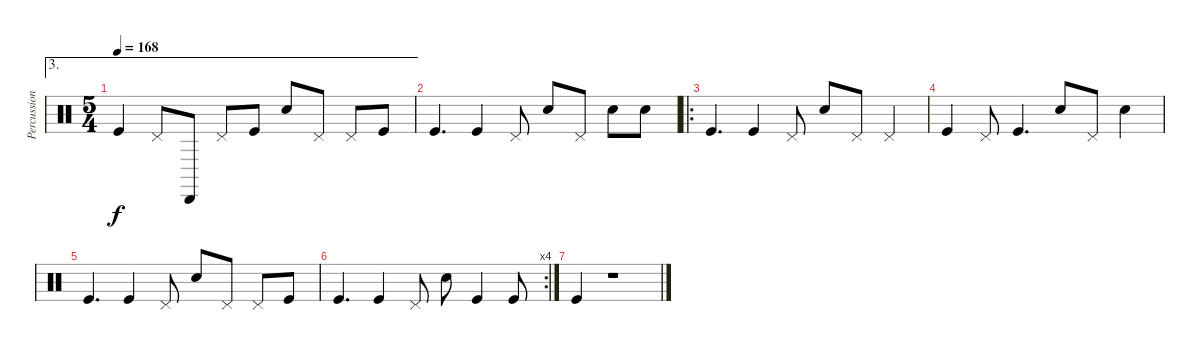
\track ("Percussion" "Percussion") {instrument percussion}
\staff {score}
\articulation defaults
\ae 3
\ts (5 4)
\tempo 168
\clef neutral
\ks c "Kick (hit)".4{dy f} "Pedal Hi-Hat (hit)".8 "Cabasa (hit)".8 "Pedal Hi-Hat (hit)".8 "Kick (hit)".8 "Snare (hit) 2".8 "Pedal Hi-Hat (hit)".8 "Pedal Hi-Hat (hit)".8 "Kick (hit)".8
|
"Kick (hit)".4{d} "Kick (hit)".4 "Pedal Hi-Hat (hit)".8 "Snare (hit) 2".8 "Pedal Hi-Hat (hit)".8 "Snare (hit) 2".8 "Snare (hit) 2".8 |
\ro "Kick (hit)".4{d} "Kick (hit)".4 "Pedal Hi-Hat (hit)".8 "Snare (hit) 2".8 "Pedal Hi-Hat (hit)".8 "Pedal Hi-Hat (hit)".4
|
"Kick (hit)".4 "Pedal Hi-Hat (hit)".8 "Kick (hit)".4{d} "Snare (hit) 2".8 "Pedal Hi-Hat (hit)".8 "Snare (hit) 2".4 |
"Kick (hit)".4{d} "Kick (hit)".4 "Pedal Hi-Hat (hit)".8 "Snare (hit) 2".8 "Pedal Hi-Hat (hit)".8 "Pedal Hi-Hat (hit)".8 "Kick (hit)".8 |
\rc 4 "Kick (hit)".4{d} "Kick (hit)".4 "Pedal Hi-Hat (hit)".8 "Snare (hit) 2".8 "Kick (hit)".4 "Kick (hit)".8
|
"Kick (hit)".4 r.1
